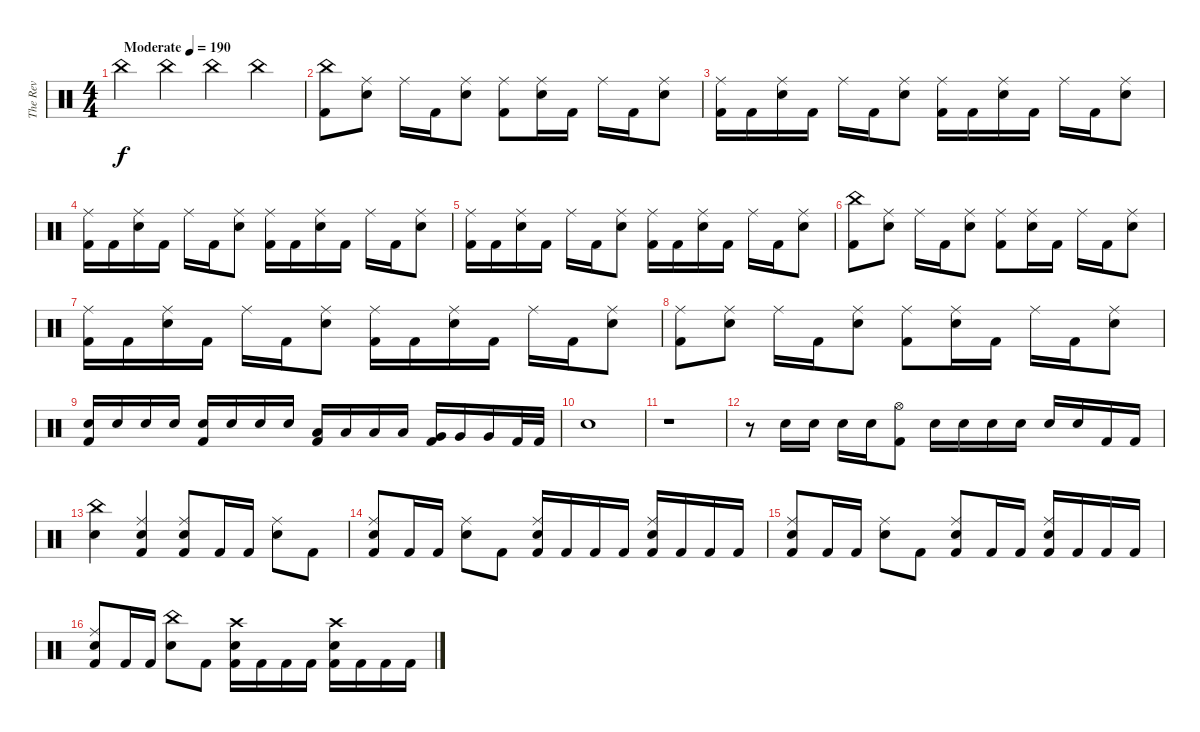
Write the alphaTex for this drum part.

\track ("The Rev" "The Rev") {instrument percussion}
\staff {score}
\articulation defaults
\ts (4 4)
\tempo (190 "Moderate")
\clef neutral
\ks c "China (hit)".4{dy f} "China (hit)".4 "China (hit)".4 "China (hit)".4
|
("China (hit)" "Kick (hit) 2").8 ("Ride (middle)" "Electric Snare (hit)").8 "Ride (middle)".16 "Kick (hit) 2".16 ("Ride (middle)" "Electric Snare (hit)").8 ("Ride (middle)" "Kick (hit) 2").8 ("Ride (middle)" "Electric Snare (hit)").16 "Kick (hit) 2".16 "Ride (middle)".16 "Kick (hit) 2".16 ("Ride (middle)" "Electric Snare (hit)").8 |
("Ride (middle)" "Kick (hit) 2").16 "Kick (hit) 2".16 ("Ride (middle)" "Electric Snare (hit)").16 "Kick (hit) 2".16 "Ride (middle)".16 "Kick (hit) 2".16 ("Ride (middle)" "Electric Snare (hit)").8 ("Ride (middle)" "Kick (hit) 2").16 "Kick (hit) 2".16 ("Ride (middle)" "Electric Snare (hit)").16 "Kick (hit) 2".16 "Ride (middle)".16 "Kick (hit) 2".16 ("Ride (middle)" "Electric Snare (hit)").8 |
("Ride (middle)" "Kick (hit) 2").16 "Kick (hit) 2".16 ("Ride (middle)" "Electric Snare (hit)").16 "Kick (hit) 2".16 "Ride (middle)".16 "Kick (hit) 2".16 ("Ride (middle)" "Electric Snare (hit)").8 ("Ride (middle)" "Kick (hit) 2").16 "Kick (hit) 2".16 ("Ride (middle)" "Electric Snare (hit)").16 "Kick (hit) 2".16 "Ride (middle)".16 "Kick (hit) 2".16 ("Ride (middle)" "Electric Snare (hit)").8 |
("Ride (middle)" "Kick (hit) 2").16 "Kick (hit) 2".16 ("Ride (middle)" "Electric Snare (hit)").16 "Kick (hit) 2".16 "Ride (middle)".16 "Kick (hit) 2".16 ("Ride (middle)" "Electric Snare (hit)").8 ("Ride (middle)" "Kick (hit) 2").16 "Kick (hit) 2".16 ("Ride (middle)" "Electric Snare (hit)").16 "Kick (hit) 2".16 "Ride (middle)".16 "Kick (hit) 2".16 ("Ride (middle)" "Electric Snare (hit)").8 |
("China (hit)" "Kick (hit) 2").8 ("Ride (middle)" "Electric Snare (hit)").8 "Ride (middle)".16 "Kick (hit) 2".16 ("Ride (middle)" "Electric Snare (hit)").8 ("Ride (middle)" "Kick (hit) 2").8 ("Ride (middle)" "Electric Snare (hit)").16 "Kick (hit) 2".16 "Ride (middle)".16 "Kick (hit) 2".16 ("Ride (middle)" "Electric Snare (hit)").8 |
("Ride (middle)" "Kick (hit) 2").16 "Kick (hit) 2".16 ("Ride (middle)" "Electric Snare (hit)").16 "Kick (hit) 2".16 "Ride (middle)".16 "Kick (hit) 2".16 ("Ride (middle)" "Electric Snare (hit)").8 ("Ride (middle)" "Kick (hit) 2").16 "Kick (hit) 2".16 ("Ride (middle)" "Electric Snare (hit)").16 "Kick (hit) 2".16 "Ride (middle)".16 "Kick (hit) 2".16 ("Ride (middle)" "Electric Snare (hit)").8 |
("Ride (middle)" "Kick (hit) 2").8 ("Ride (middle)" "Electric Snare (hit)").8 "Ride (middle)".16 "Kick (hit) 2".16 ("Ride (middle)" "Electric Snare (hit)").8 ("Ride (middle)" "Kick (hit) 2").8 ("Ride (middle)" "Electric Snare (hit)").16 "Kick (hit) 2".16 "Ride (middle)".16 "Kick (hit) 2".16 ("Ride (middle)" "Electric Snare (hit)").8 |
("Electric Snare (hit)" "Kick (hit) 2").16 "Electric Snare (hit)".16 "Electric Snare (hit)".16 "Electric Snare (hit)".16 ("Electric Snare (hit)" "Kick (hit) 2").16 "Electric Snare (hit)".16 "Electric Snare (hit)".16 "Electric Snare (hit)".16 ("Low Tom (hit)" "Kick (hit) 2").16 "Low Tom (hit)".16 "Low Tom (hit)".16 "Low Tom (hit)".16 ("Very Low Tom (hit)" "Kick (hit) 2").16 "Very Low Tom (hit)".16 "Very Low Tom (hit)".16 "Kick (hit) 2".32 "Kick (hit) 2".32 |
"Electric Snare (hit)".1 |
r.1 |
r.8 "Electric Snare (hit)".16 "Electric Snare (hit)".16 "Electric Snare (hit)".16 "Electric Snare (hit)".16 ("Hi-Hat (open)" "Kick (hit) 2").8 "Electric Snare (hit)".16 "Electric Snare (hit)".16 "Electric Snare (hit)".16 "Electric Snare (hit)".16 "Electric Snare (hit)".16 "Electric Snare (hit)".16 "Kick (hit) 2".16 "Kick (hit) 2".16 |
("China (hit)" "Electric Snare (hit)").4 ("Ride (middle)" "Electric Snare (hit)" "Kick (hit) 2").4 ("Ride (middle)" "Electric Snare (hit)" "Kick (hit) 2").8 "Kick (hit) 2".16 "Kick (hit) 2".16 ("Ride (middle)" "Electric Snare (hit)").8 "Kick (hit) 2".8 |
("Ride (middle)" "Electric Snare (hit)" "Kick (hit) 2").8 "Kick (hit) 2".16 "Kick (hit) 2".16 ("Ride (middle)" "Electric Snare (hit)").8 "Kick (hit) 2".8 ("Ride (middle)" "Electric Snare (hit)" "Kick (hit) 2").16 "Kick (hit) 2".16 "Kick (hit) 2".16 "Kick (hit) 2".16 ("Ride (middle)" "Electric Snare (hit)" "Kick (hit) 2").16 "Kick (hit) 2".16 "Kick (hit) 2".16 "Kick (hit) 2".16 |
("Ride (middle)" "Electric Snare (hit)" "Kick (hit) 2").8 "Kick (hit) 2".16 "Kick (hit) 2".16 ("Ride (middle)" "Electric Snare (hit)").8 "Kick (hit) 2".8 ("Ride (middle)" "Electric Snare (hit)" "Kick (hit) 2").8 "Kick (hit) 2".16 "Kick (hit) 2".16 ("Ride (middle)" "Electric Snare (hit)" "Kick (hit) 2").16 "Kick (hit) 2".16 "Kick (hit) 2".16 "Kick (hit) 2".16 |
("Ride (middle)" "Electric Snare (hit)" "Kick (hit) 2").8 "Kick (hit) 2".16 "Kick (hit) 2".16 ("China (hit)" "Electric Snare (hit)").8 "Kick (hit) 2".8 ("Crash high (hit)" "Electric Snare (hit)" "Kick (hit) 2").16 "Kick (hit) 2".16 "Kick (hit) 2".16 "Kick (hit) 2".16 ("Crash high (hit)" "Electric Snare (hit)" "Kick (hit) 2").16 "Kick (hit) 2".16 "Kick (hit) 2".16 "Kick (hit) 2".16
